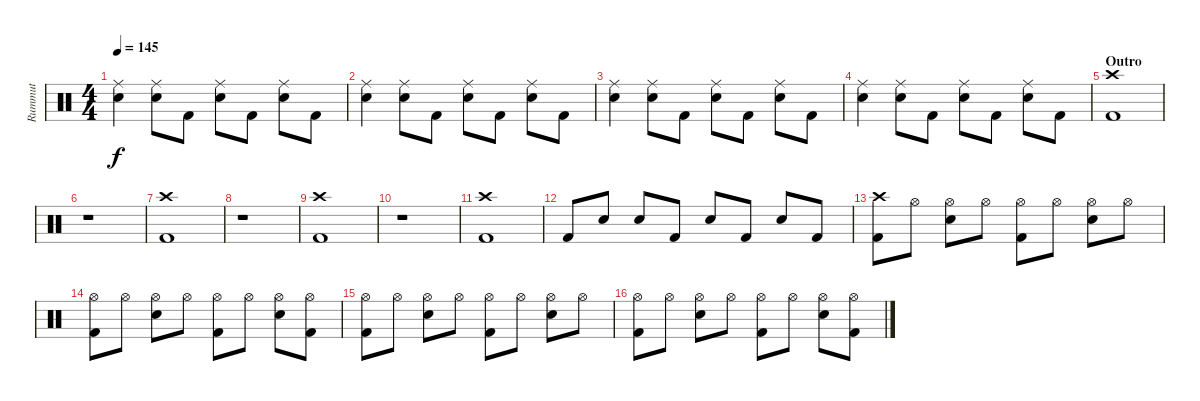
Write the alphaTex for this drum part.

\track ("Rummut" "Rummut") {instrument percussion}
\staff {score}
\articulation defaults
\ts (4 4)
\tempo 145
\clef neutral
\ks c
("Ride (middle)" "Snare (hit) 2").4{dy f} ("Ride (middle)" "Snare (hit) 2").8 "Kick (hit) 2".8 ("Ride (middle)" "Snare (hit) 2").8 "Kick (hit) 2".8 ("Ride (middle)" "Snare (hit) 2").8 "Kick (hit) 2".8 |
("Ride (middle)" "Snare (hit) 2").4 ("Ride (middle)" "Snare (hit) 2").8 "Kick (hit) 2".8 ("Ride (middle)" "Snare (hit) 2").8 "Kick (hit) 2".8 ("Ride (middle)" "Snare (hit) 2").8 "Kick (hit) 2".8 |
("Ride (middle)" "Snare (hit) 2").4 ("Ride (middle)" "Snare (hit) 2").8 "Kick (hit) 2".8 ("Ride (middle)" "Snare (hit) 2").8 "Kick (hit) 2".8 ("Ride (middle)" "Snare (hit) 2").8 "Kick (hit) 2".8 |
("Ride (middle)" "Snare (hit) 2").4 ("Ride (middle)" "Snare (hit) 2").8 "Kick (hit) 2".8 ("Ride (middle)" "Snare (hit) 2").8 "Kick (hit) 2".8 ("Ride (middle)" "Snare (hit) 2").8 "Kick (hit) 2".8 |
\section ("" "Outro")
("Crash high (hit)" "Kick (hit) 2").1 |
r.1 |
("Crash high (hit)" "Kick (hit) 2").1 |
r.1 |
("Crash high (hit)" "Kick (hit) 2").1 |
r.1 |
("Crash high (hit)" "Kick (hit) 2").1 |
"Kick (hit) 2".8 "Snare (hit) 2".8 "Snare (hit) 2".8 "Kick (hit) 2".8 "Snare (hit) 2".8 "Kick (hit) 2".8 "Snare (hit) 2".8 "Kick (hit) 2".8 |
("Crash high (hit)" "Kick (hit) 2").8 "Hi-Hat (open)".8 ("Hi-Hat (open)" "Snare (hit) 2").8 "Hi-Hat (open)".8 ("Hi-Hat (open)" "Kick (hit) 2").8 "Hi-Hat (open)".8 ("Hi-Hat (open)" "Snare (hit) 2").8 "Hi-Hat (open)".8 |
("Hi-Hat (open)" "Kick (hit) 2").8 "Hi-Hat (open)".8 ("Hi-Hat (open)" "Snare (hit) 2").8 "Hi-Hat (open)".8 ("Hi-Hat (open)" "Kick (hit) 2").8 "Hi-Hat (open)".8 ("Hi-Hat (open)" "Snare (hit) 2").8 ("Hi-Hat (open)" "Kick (hit) 2").8 |
("Hi-Hat (open)" "Kick (hit) 2").8 "Hi-Hat (open)".8 ("Hi-Hat (open)" "Snare (hit) 2").8 "Hi-Hat (open)".8 ("Hi-Hat (open)" "Kick (hit) 2").8 "Hi-Hat (open)".8 ("Hi-Hat (open)" "Snare (hit) 2").8 "Hi-Hat (open)".8 |
("Hi-Hat (open)" "Kick (hit) 2").8 "Hi-Hat (open)".8 ("Hi-Hat (open)" "Snare (hit) 2").8 "Hi-Hat (open)".8 ("Hi-Hat (open)" "Kick (hit) 2").8 "Hi-Hat (open)".8 ("Hi-Hat (open)" "Snare (hit) 2").8 ("Hi-Hat (open)" "Kick (hit) 2").8
